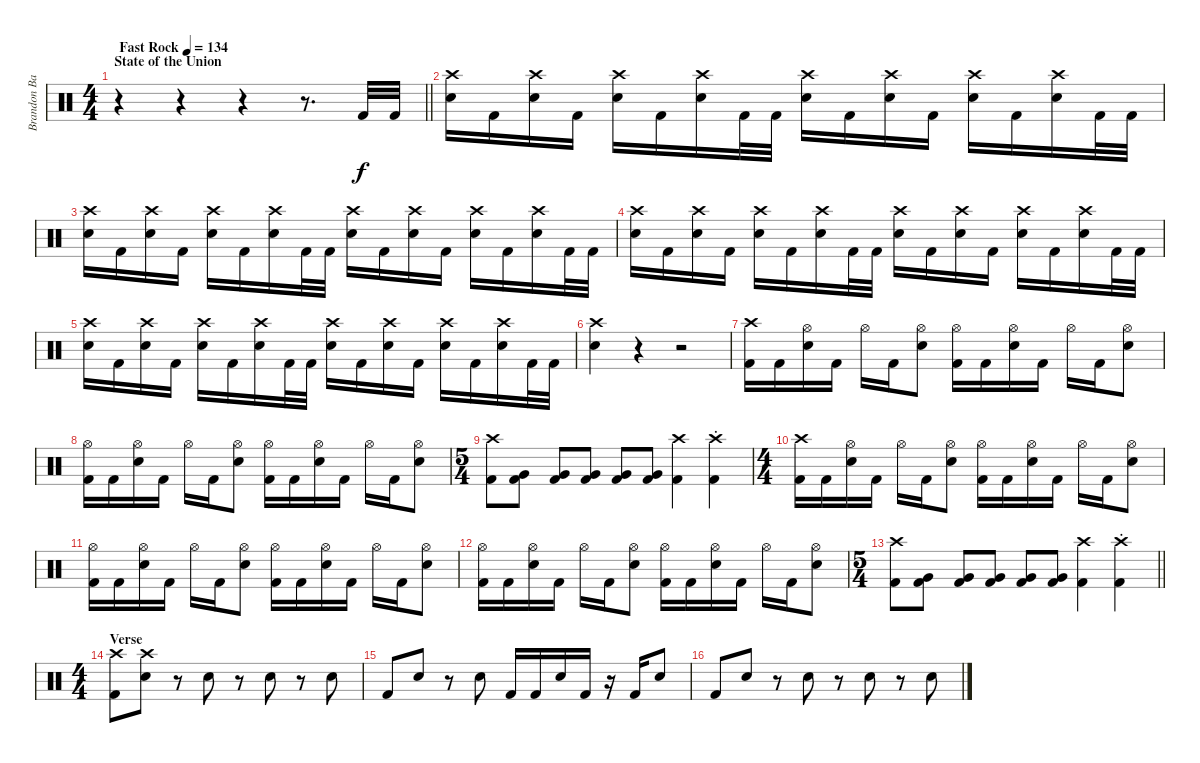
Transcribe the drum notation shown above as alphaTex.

\track ("Brandon Barnes - Drums" "Brandon Ba") {instrument percussion}
\staff {score}
\articulation defaults
\ts (4 4)
\section ("" "State of the Union")
\tempo (134 "Fast Rock")
\clef neutral
\barLineRight lightlight
\ks c
r.4{dy f} r.4 r.4 r.8{d} "Kick (hit) 2".32 "Kick (hit) 2".32 |
("Snare (hit) 2" "Crash high (hit)").16 "Kick (hit) 2".16 ("Snare (hit) 2" "Crash high (hit)").16 "Kick (hit) 2".16 ("Snare (hit) 2" "Crash high (hit)").16 "Kick (hit) 2".16 ("Snare (hit) 2" "Crash high (hit)").16 "Kick (hit) 2".32 "Kick (hit) 2".32 ("Snare (hit) 2" "Crash high (hit)").16 "Kick (hit) 2".16 ("Snare (hit) 2" "Crash high (hit)").16 "Kick (hit) 2".16 ("Snare (hit) 2" "Crash high (hit)").16 "Kick (hit) 2".16 ("Snare (hit) 2" "Crash high (hit)").16 "Kick (hit) 2".32 "Kick (hit) 2".32 |
("Snare (hit) 2" "Crash high (hit)").16 "Kick (hit) 2".16 ("Snare (hit) 2" "Crash high (hit)").16 "Kick (hit) 2".16 ("Snare (hit) 2" "Crash high (hit)").16 "Kick (hit) 2".16 ("Snare (hit) 2" "Crash high (hit)").16 "Kick (hit) 2".32 "Kick (hit) 2".32 ("Snare (hit) 2" "Crash high (hit)").16 "Kick (hit) 2".16 ("Snare (hit) 2" "Crash high (hit)").16 "Kick (hit) 2".16 ("Snare (hit) 2" "Crash high (hit)").16 "Kick (hit) 2".16 ("Snare (hit) 2" "Crash high (hit)").16 "Kick (hit) 2".32 "Kick (hit) 2".32 |
("Snare (hit) 2" "Crash high (hit)").16 "Kick (hit) 2".16 ("Snare (hit) 2" "Crash high (hit)").16 "Kick (hit) 2".16 ("Snare (hit) 2" "Crash high (hit)").16 "Kick (hit) 2".16 ("Snare (hit) 2" "Crash high (hit)").16 "Kick (hit) 2".32 "Kick (hit) 2".32 ("Snare (hit) 2" "Crash high (hit)").16 "Kick (hit) 2".16 ("Snare (hit) 2" "Crash high (hit)").16 "Kick (hit) 2".16 ("Snare (hit) 2" "Crash high (hit)").16 "Kick (hit) 2".16 ("Snare (hit) 2" "Crash high (hit)").16 "Kick (hit) 2".32 "Kick (hit) 2".32 |
("Snare (hit) 2" "Crash high (hit)").16 "Kick (hit) 2".16 ("Snare (hit) 2" "Crash high (hit)").16 "Kick (hit) 2".16 ("Snare (hit) 2" "Crash high (hit)").16 "Kick (hit) 2".16 ("Snare (hit) 2" "Crash high (hit)").16 "Kick (hit) 2".32 "Kick (hit) 2".32 ("Snare (hit) 2" "Crash high (hit)").16 "Kick (hit) 2".16 ("Snare (hit) 2" "Crash high (hit)").16 "Kick (hit) 2".16 ("Snare (hit) 2" "Crash high (hit)").16 "Kick (hit) 2".16 ("Snare (hit) 2" "Crash high (hit)").16 "Kick (hit) 2".32 "Kick (hit) 2".32 |
("Snare (hit) 2" "Crash high (hit)").4 r.4{volume 0} r.2 |
("Crash high (hit)" "Kick (hit) 2").16{volume 9} "Kick (hit) 2".16 ("Snare (hit) 2" "Hi-Hat (open)").16 "Kick (hit) 2".16 "Hi-Hat (open)".16 "Kick (hit) 2".16 ("Snare (hit) 2" "Hi-Hat (open)").8 ("Hi-Hat (open)" "Kick (hit) 2").16 "Kick (hit) 2".16 ("Snare (hit) 2" "Hi-Hat (open)").16 "Kick (hit) 2".16 "Hi-Hat (open)".16 "Kick (hit) 2".16 ("Snare (hit) 2" "Hi-Hat (open)").8 |
("Hi-Hat (open)" "Kick (hit) 2").16 "Kick (hit) 2".16 ("Snare (hit) 2" "Hi-Hat (open)").16 "Kick (hit) 2".16 "Hi-Hat (open)".16 "Kick (hit) 2".16 ("Snare (hit) 2" "Hi-Hat (open)").8 ("Hi-Hat (open)" "Kick (hit) 2").16 "Kick (hit) 2".16 ("Snare (hit) 2" "Hi-Hat (open)").16 "Kick (hit) 2".16 "Hi-Hat (open)".16 "Kick (hit) 2".16 ("Snare (hit) 2" "Hi-Hat (open)").8 |
\ts (5 4)
("Kick (hit) 2" "Crash high (hit)").8 ("Very Low Tom (hit)" "Kick (hit) 2").8 ("Very Low Tom (hit)" "Kick (hit) 2").8 ("Very Low Tom (hit)" "Kick (hit) 2").8 ("Very Low Tom (hit)" "Kick (hit) 2").8 ("Very Low Tom (hit)" "Kick (hit) 2").8 ("Kick (hit) 2" "Crash high (hit)").4 ("Kick (hit) 2"{st} "Crash high (hit)"{st}).4 |
\ts (4 4)
("Crash high (hit)" "Kick (hit) 2").16 "Kick (hit) 2".16 ("Snare (hit) 2" "Hi-Hat (open)").16 "Kick (hit) 2".16 "Hi-Hat (open)".16 "Kick (hit) 2".16 ("Snare (hit) 2" "Hi-Hat (open)").8 ("Hi-Hat (open)" "Kick (hit) 2").16 "Kick (hit) 2".16 ("Snare (hit) 2" "Hi-Hat (open)").16 "Kick (hit) 2".16 "Hi-Hat (open)".16 "Kick (hit) 2".16 ("Snare (hit) 2" "Hi-Hat (open)").8 |
("Hi-Hat (open)" "Kick (hit) 2").16 "Kick (hit) 2".16 ("Snare (hit) 2" "Hi-Hat (open)").16 "Kick (hit) 2".16 "Hi-Hat (open)".16 "Kick (hit) 2".16 ("Snare (hit) 2" "Hi-Hat (open)").8 ("Hi-Hat (open)" "Kick (hit) 2").16 "Kick (hit) 2".16 ("Snare (hit) 2" "Hi-Hat (open)").16 "Kick (hit) 2".16 "Hi-Hat (open)".16 "Kick (hit) 2".16 ("Snare (hit) 2" "Hi-Hat (open)").8 |
("Hi-Hat (open)" "Kick (hit) 2").16 "Kick (hit) 2".16 ("Snare (hit) 2" "Hi-Hat (open)").16 "Kick (hit) 2".16 "Hi-Hat (open)".16 "Kick (hit) 2".16 ("Snare (hit) 2" "Hi-Hat (open)").8 ("Hi-Hat (open)" "Kick (hit) 2").16 "Kick (hit) 2".16 ("Snare (hit) 2" "Hi-Hat (open)").16 "Kick (hit) 2".16 "Hi-Hat (open)".16 "Kick (hit) 2".16 ("Snare (hit) 2" "Hi-Hat (open)").8 |
\ts (5 4)
\barLineRight lightlight
("Kick (hit) 2" "Crash high (hit)").8 ("Very Low Tom (hit)" "Kick (hit) 2").8 ("Very Low Tom (hit)" "Kick (hit) 2").8 ("Very Low Tom (hit)" "Kick (hit) 2").8 ("Very Low Tom (hit)" "Kick (hit) 2").8 ("Very Low Tom (hit)" "Kick (hit) 2").8 ("Kick (hit) 2" "Crash high (hit)").4 ("Kick (hit) 2"{st} "Crash high (hit)"{st}).4 |
\ts (4 4)
\section ("" "Verse")
("Kick (hit) 2" "Crash high (hit)").8 ("Snare (hit) 2" "Crash high (hit)").8 r.8 "Snare (hit) 2".8 r.8 "Snare (hit) 2".8 r.8 "Snare (hit) 2".8 |
"Kick (hit) 2".8 "Snare (hit) 2".8 r.8 "Snare (hit) 2".8 "Kick (hit) 2".16 "Kick (hit) 2".16 "Snare (hit) 2".16 "Kick (hit) 2".16 r.16 "Kick (hit) 2".16 "Snare (hit) 2".8 |
"Kick (hit) 2".8 "Snare (hit) 2".8 r.8 "Snare (hit) 2".8 r.8 "Snare (hit) 2".8 r.8 "Snare (hit) 2".8
